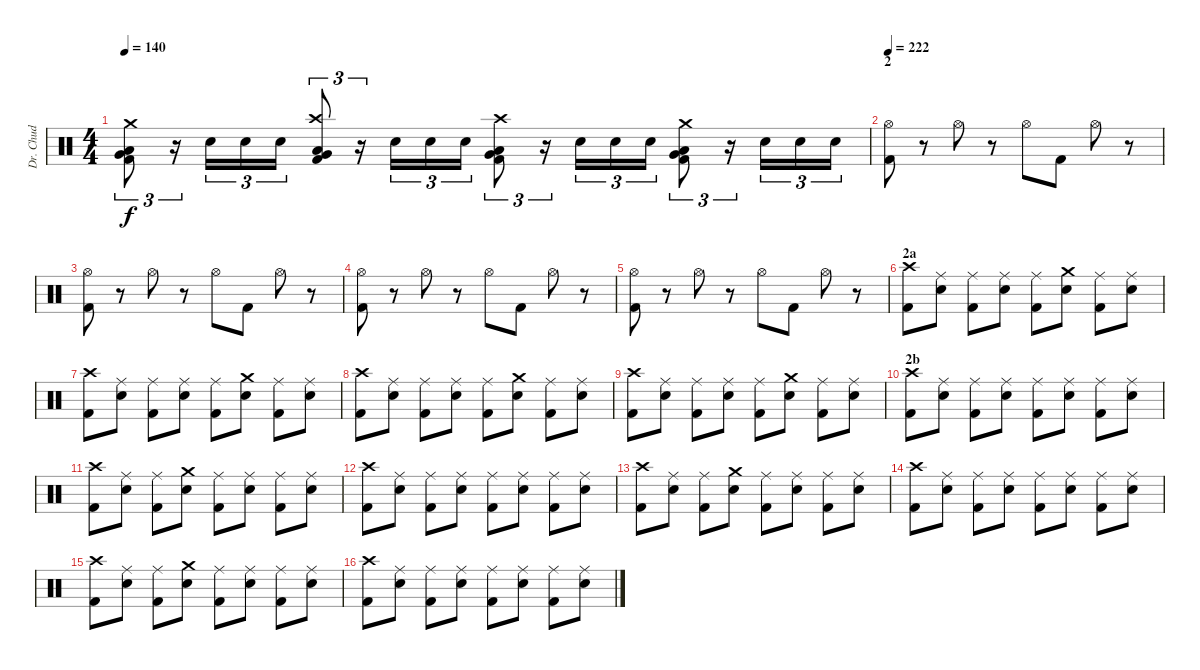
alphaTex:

\track ("Dr. Chud" "Dr. Chud") {instrument percussion}
\staff {score}
\articulation defaults
\ts (4 4)
\tempo 140
\clef neutral
\ks c
("Crash medium (hit)" "Low Tom (hit)" "Very Low Tom (hit)" "Kick (hit) 2").8{tu (3 2) dy f} r.16{tu (3 2)} "Electric Snare (hit)".16{tu (3 2)} "Electric Snare (hit)".16{tu (3 2)} "Electric Snare (hit)".16{tu (3 2)} ("Crash high (hit)" "Very Low Tom (hit)" "Low Floor Tom (hit)" "Kick (hit) 2").8{tu (3 2)} r.16{tu (3 2)} "Electric Snare (hit)".16{tu (3 2)} "Electric Snare (hit)".16{tu (3 2)} "Electric Snare (hit)".16{tu (3 2)} ("Crash high (hit)" "Low Tom (hit)" "Very Low Tom (hit)" "Kick (hit) 2").8{tu (3 2)} r.16{tu (3 2)} "Electric Snare (hit)".16{tu (3 2)} "Electric Snare (hit)".16{tu (3 2)} "Electric Snare (hit)".16{tu (3 2)} ("Crash medium (hit)" "Very Low Tom (hit)" "Low Floor Tom (hit)" "Kick (hit) 2").8{tu (3 2)} r.16{tu (3 2)} "Electric Snare (hit)".16{tu (3 2)} "Electric Snare (hit)".16{tu (3 2)} "Electric Snare (hit)".16{tu (3 2)} |
\section ("" "2")
\tempo 222
("Hi-Hat (open)" "Kick (hit) 2").8 r.8 "Hi-Hat (open)".8 r.8 "Hi-Hat (open)".8 "Kick (hit) 2".8 "Hi-Hat (open)".8 r.8 |
("Hi-Hat (open)" "Kick (hit) 2").8 r.8 "Hi-Hat (open)".8 r.8 "Hi-Hat (open)".8 "Kick (hit) 2".8 "Hi-Hat (open)".8 r.8 |
("Hi-Hat (open)" "Kick (hit) 2").8 r.8 "Hi-Hat (open)".8 r.8 "Hi-Hat (open)".8 "Kick (hit) 2".8 "Hi-Hat (open)".8 r.8 |
("Hi-Hat (open)" "Kick (hit) 2").8 r.8 "Hi-Hat (open)".8 r.8 "Hi-Hat (open)".8 "Kick (hit) 2".8 "Hi-Hat (open)".8 r.8 |
\section ("" "2a")
("Crash high (hit)" "Kick (hit) 2").8 ("Ride (middle)" "Electric Snare (hit)").8 ("Ride (middle)" "Kick (hit) 2").8 ("Ride (middle)" "Electric Snare (hit)").8 ("Ride (middle)" "Kick (hit) 2").8 ("Crash medium (hit)" "Electric Snare (hit)").8 ("Ride (middle)" "Kick (hit) 2").8 ("Ride (middle)" "Electric Snare (hit)").8 |
("Crash high (hit)" "Kick (hit) 2").8 ("Ride (middle)" "Electric Snare (hit)").8 ("Ride (middle)" "Kick (hit) 2").8 ("Ride (middle)" "Electric Snare (hit)").8 ("Ride (middle)" "Kick (hit) 2").8 ("Crash medium (hit)" "Electric Snare (hit)").8 ("Ride (middle)" "Kick (hit) 2").8 ("Ride (middle)" "Electric Snare (hit)").8 |
("Crash high (hit)" "Kick (hit) 2").8 ("Ride (middle)" "Electric Snare (hit)").8 ("Ride (middle)" "Kick (hit) 2").8 ("Ride (middle)" "Electric Snare (hit)").8 ("Ride (middle)" "Kick (hit) 2").8 ("Crash medium (hit)" "Electric Snare (hit)").8 ("Ride (middle)" "Kick (hit) 2").8 ("Ride (middle)" "Electric Snare (hit)").8 |
("Crash high (hit)" "Kick (hit) 2").8 ("Ride (middle)" "Electric Snare (hit)").8 ("Ride (middle)" "Kick (hit) 2").8 ("Ride (middle)" "Electric Snare (hit)").8 ("Ride (middle)" "Kick (hit) 2").8 ("Crash medium (hit)" "Electric Snare (hit)").8 ("Ride (middle)" "Kick (hit) 2").8 ("Ride (middle)" "Electric Snare (hit)").8 |
\section ("" "2b")
("Crash high (hit)" "Kick (hit) 2").8 ("Ride (middle)" "Electric Snare (hit)").8 ("Ride (middle)" "Kick (hit) 2").8 ("Ride (middle)" "Electric Snare (hit)").8 ("Ride (middle)" "Kick (hit) 2").8 ("Ride (middle)" "Electric Snare (hit)").8 ("Ride (middle)" "Kick (hit) 2").8 ("Ride (middle)" "Electric Snare (hit)").8 |
("Crash high (hit)" "Kick (hit) 2").8 ("Ride (middle)" "Electric Snare (hit)").8 ("Ride (middle)" "Kick (hit) 2").8 ("Crash medium (hit)" "Electric Snare (hit)").8 ("Ride (middle)" "Kick (hit) 2").8 ("Ride (middle)" "Electric Snare (hit)").8 ("Ride (middle)" "Kick (hit) 2").8 ("Ride (middle)" "Electric Snare (hit)").8 |
("Crash high (hit)" "Kick (hit) 2").8 ("Ride (middle)" "Electric Snare (hit)").8 ("Ride (middle)" "Kick (hit) 2").8 ("Ride (middle)" "Electric Snare (hit)").8 ("Ride (middle)" "Kick (hit) 2").8 ("Ride (middle)" "Electric Snare (hit)").8 ("Ride (middle)" "Kick (hit) 2").8 ("Ride (middle)" "Electric Snare (hit)").8 |
("Crash high (hit)" "Kick (hit) 2").8 ("Ride (middle)" "Electric Snare (hit)").8 ("Ride (middle)" "Kick (hit) 2").8 ("Crash medium (hit)" "Electric Snare (hit)").8 ("Ride (middle)" "Kick (hit) 2").8 ("Ride (middle)" "Electric Snare (hit)").8 ("Ride (middle)" "Kick (hit) 2").8 ("Ride (middle)" "Electric Snare (hit)").8 |
("Crash high (hit)" "Kick (hit) 2").8 ("Ride (middle)" "Electric Snare (hit)").8 ("Ride (middle)" "Kick (hit) 2").8 ("Ride (middle)" "Electric Snare (hit)").8 ("Ride (middle)" "Kick (hit) 2").8 ("Ride (middle)" "Electric Snare (hit)").8 ("Ride (middle)" "Kick (hit) 2").8 ("Ride (middle)" "Electric Snare (hit)").8 |
("Crash high (hit)" "Kick (hit) 2").8 ("Ride (middle)" "Electric Snare (hit)").8 ("Ride (middle)" "Kick (hit) 2").8 ("Crash medium (hit)" "Electric Snare (hit)").8 ("Ride (middle)" "Kick (hit) 2").8 ("Ride (middle)" "Electric Snare (hit)").8 ("Ride (middle)" "Kick (hit) 2").8 ("Ride (middle)" "Electric Snare (hit)").8 |
("Crash high (hit)" "Kick (hit) 2").8 ("Ride (middle)" "Electric Snare (hit)").8 ("Ride (middle)" "Kick (hit) 2").8 ("Ride (middle)" "Electric Snare (hit)").8 ("Ride (middle)" "Kick (hit) 2").8 ("Ride (middle)" "Electric Snare (hit)").8 ("Ride (middle)" "Kick (hit) 2").8 ("Ride (middle)" "Electric Snare (hit)").8
